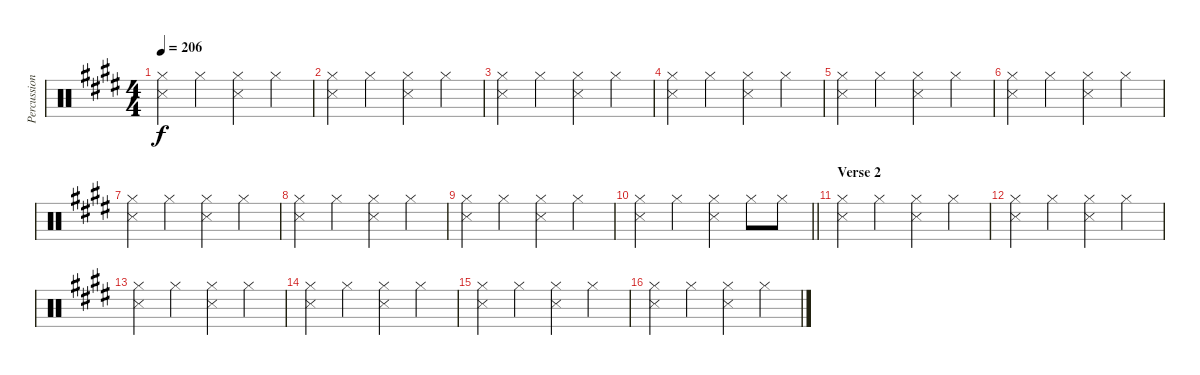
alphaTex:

\track ("Percussion" "Percussion") {instrument percussion}
\staff {score}
\articulation defaults
\ts (4 4)
\tempo 206
\clef neutral
\ks e
("Hi-Hat (closed)" "Snare (side stick) 3").4{dy f} "Hi-Hat (closed)".4 ("Hi-Hat (closed)" "Snare (side stick) 3").4 "Hi-Hat (closed)".4 |
("Hi-Hat (closed)" "Snare (side stick) 3").4 "Hi-Hat (closed)".4 ("Hi-Hat (closed)" "Snare (side stick) 3").4 "Hi-Hat (closed)".4 |
("Hi-Hat (closed)" "Snare (side stick) 3").4 "Hi-Hat (closed)".4 ("Hi-Hat (closed)" "Snare (side stick) 3").4 "Hi-Hat (closed)".4 |
("Hi-Hat (closed)" "Snare (side stick) 3").4 "Hi-Hat (closed)".4 ("Hi-Hat (closed)" "Snare (side stick) 3").4 "Hi-Hat (closed)".4 |
("Hi-Hat (closed)" "Snare (side stick) 3").4 "Hi-Hat (closed)".4 ("Hi-Hat (closed)" "Snare (side stick) 3").4 "Hi-Hat (closed)".4 |
("Hi-Hat (closed)" "Snare (side stick) 3").4 "Hi-Hat (closed)".4 ("Hi-Hat (closed)" "Snare (side stick) 3").4 "Hi-Hat (closed)".4 |
("Hi-Hat (closed)" "Snare (side stick) 3").4 "Hi-Hat (closed)".4 ("Hi-Hat (closed)" "Snare (side stick) 3").4 "Hi-Hat (closed)".4 |
("Hi-Hat (closed)" "Snare (side stick) 3").4 "Hi-Hat (closed)".4 ("Hi-Hat (closed)" "Snare (side stick) 3").4 "Hi-Hat (closed)".4 |
("Hi-Hat (closed)" "Snare (side stick) 3").4 "Hi-Hat (closed)".4 ("Hi-Hat (closed)" "Snare (side stick) 3").4 "Hi-Hat (closed)".4 |
\barLineRight lightlight
("Hi-Hat (closed)" "Snare (side stick) 3").4 "Hi-Hat (closed)".4 ("Hi-Hat (closed)" "Snare (side stick) 3").4 "Hi-Hat (closed)".8 "Hi-Hat (closed)".8 |
\section ("" "Verse 2")
("Hi-Hat (closed)" "Snare (side stick) 3").4 "Hi-Hat (closed)".4 ("Hi-Hat (closed)" "Snare (side stick) 3").4 "Hi-Hat (closed)".4 |
("Hi-Hat (closed)" "Snare (side stick) 3").4 "Hi-Hat (closed)".4 ("Hi-Hat (closed)" "Snare (side stick) 3").4 "Hi-Hat (closed)".4 |
("Hi-Hat (closed)" "Snare (side stick) 3").4 "Hi-Hat (closed)".4 ("Hi-Hat (closed)" "Snare (side stick) 3").4 "Hi-Hat (closed)".4 |
("Hi-Hat (closed)" "Snare (side stick) 3").4 "Hi-Hat (closed)".4 ("Hi-Hat (closed)" "Snare (side stick) 3").4 "Hi-Hat (closed)".4 |
("Hi-Hat (closed)" "Snare (side stick) 3").4 "Hi-Hat (closed)".4 ("Hi-Hat (closed)" "Snare (side stick) 3").4 "Hi-Hat (closed)".4 |
("Hi-Hat (closed)" "Snare (side stick) 3").4 "Hi-Hat (closed)".4 ("Hi-Hat (closed)" "Snare (side stick) 3").4 "Hi-Hat (closed)".4
